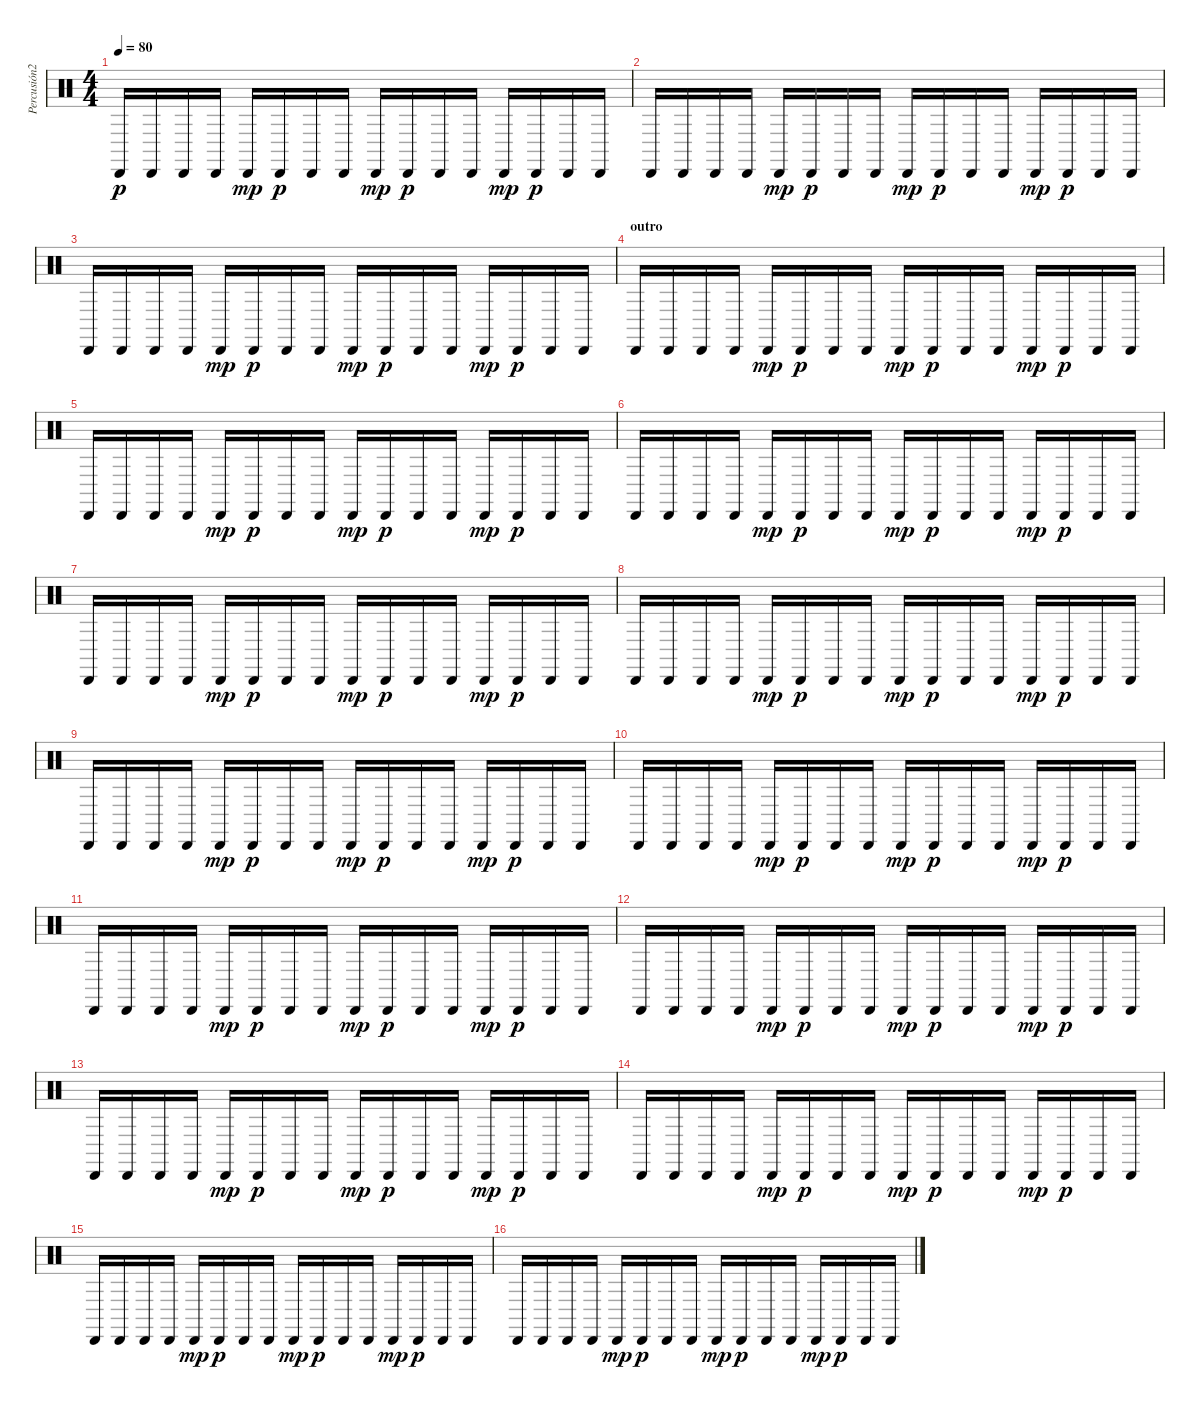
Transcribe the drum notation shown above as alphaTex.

\track ("Percusión2" "Percusión2") {instrument percussion}
\staff {score}
\articulation defaults
\ts (4 4)
\tempo 80
\clef neutral
\ks c "Cabasa (hit)".16{dy p} "Cabasa (hit)".16 "Cabasa (hit)".16 "Cabasa (hit)".16 "Cabasa (hit)".16{dy mp} "Cabasa (hit)".16{dy p} "Cabasa (hit)".16 "Cabasa (hit)".16 "Cabasa (hit)".16{dy mp} "Cabasa (hit)".16{dy p} "Cabasa (hit)".16 "Cabasa (hit)".16 "Cabasa (hit)".16{dy mp} "Cabasa (hit)".16{dy p} "Cabasa (hit)".16 "Cabasa (hit)".16
|
"Cabasa (hit)".16 "Cabasa (hit)".16 "Cabasa (hit)".16 "Cabasa (hit)".16 "Cabasa (hit)".16{dy mp} "Cabasa (hit)".16{dy p} "Cabasa (hit)".16 "Cabasa (hit)".16 "Cabasa (hit)".16{dy mp} "Cabasa (hit)".16{dy p} "Cabasa (hit)".16 "Cabasa (hit)".16 "Cabasa (hit)".16{dy mp} "Cabasa (hit)".16{dy p} "Cabasa (hit)".16 "Cabasa (hit)".16 |
"Cabasa (hit)".16 "Cabasa (hit)".16 "Cabasa (hit)".16 "Cabasa (hit)".16 "Cabasa (hit)".16{dy mp} "Cabasa (hit)".16{dy p} "Cabasa (hit)".16 "Cabasa (hit)".16 "Cabasa (hit)".16{dy mp} "Cabasa (hit)".16{dy p} "Cabasa (hit)".16 "Cabasa (hit)".16 "Cabasa (hit)".16{dy mp} "Cabasa (hit)".16{dy p} "Cabasa (hit)".16 "Cabasa (hit)".16 |
\section ("" "outro")
"Cabasa (hit)".16 "Cabasa (hit)".16 "Cabasa (hit)".16 "Cabasa (hit)".16 "Cabasa (hit)".16{dy mp} "Cabasa (hit)".16{dy p} "Cabasa (hit)".16 "Cabasa (hit)".16 "Cabasa (hit)".16{dy mp} "Cabasa (hit)".16{dy p} "Cabasa (hit)".16 "Cabasa (hit)".16 "Cabasa (hit)".16{dy mp} "Cabasa (hit)".16{dy p} "Cabasa (hit)".16 "Cabasa (hit)".16 |
"Cabasa (hit)".16 "Cabasa (hit)".16 "Cabasa (hit)".16 "Cabasa (hit)".16 "Cabasa (hit)".16{dy mp} "Cabasa (hit)".16{dy p} "Cabasa (hit)".16 "Cabasa (hit)".16 "Cabasa (hit)".16{dy mp} "Cabasa (hit)".16{dy p} "Cabasa (hit)".16 "Cabasa (hit)".16 "Cabasa (hit)".16{dy mp} "Cabasa (hit)".16{dy p} "Cabasa (hit)".16 "Cabasa (hit)".16 |
"Cabasa (hit)".16 "Cabasa (hit)".16 "Cabasa (hit)".16 "Cabasa (hit)".16 "Cabasa (hit)".16{dy mp} "Cabasa (hit)".16{dy p} "Cabasa (hit)".16 "Cabasa (hit)".16 "Cabasa (hit)".16{dy mp} "Cabasa (hit)".16{dy p} "Cabasa (hit)".16 "Cabasa (hit)".16 "Cabasa (hit)".16{dy mp} "Cabasa (hit)".16{dy p} "Cabasa (hit)".16 "Cabasa (hit)".16 |
"Cabasa (hit)".16 "Cabasa (hit)".16 "Cabasa (hit)".16 "Cabasa (hit)".16 "Cabasa (hit)".16{dy mp} "Cabasa (hit)".16{dy p} "Cabasa (hit)".16 "Cabasa (hit)".16 "Cabasa (hit)".16{dy mp} "Cabasa (hit)".16{dy p} "Cabasa (hit)".16 "Cabasa (hit)".16 "Cabasa (hit)".16{dy mp} "Cabasa (hit)".16{dy p} "Cabasa (hit)".16 "Cabasa (hit)".16 |
"Cabasa (hit)".16 "Cabasa (hit)".16 "Cabasa (hit)".16 "Cabasa (hit)".16 "Cabasa (hit)".16{dy mp} "Cabasa (hit)".16{dy p} "Cabasa (hit)".16 "Cabasa (hit)".16 "Cabasa (hit)".16{dy mp} "Cabasa (hit)".16{dy p} "Cabasa (hit)".16 "Cabasa (hit)".16 "Cabasa (hit)".16{dy mp} "Cabasa (hit)".16{dy p} "Cabasa (hit)".16 "Cabasa (hit)".16 |
"Cabasa (hit)".16 "Cabasa (hit)".16 "Cabasa (hit)".16 "Cabasa (hit)".16 "Cabasa (hit)".16{dy mp} "Cabasa (hit)".16{dy p} "Cabasa (hit)".16 "Cabasa (hit)".16 "Cabasa (hit)".16{dy mp} "Cabasa (hit)".16{dy p} "Cabasa (hit)".16 "Cabasa (hit)".16 "Cabasa (hit)".16{dy mp} "Cabasa (hit)".16{dy p} "Cabasa (hit)".16 "Cabasa (hit)".16 |
"Cabasa (hit)".16 "Cabasa (hit)".16 "Cabasa (hit)".16 "Cabasa (hit)".16 "Cabasa (hit)".16{dy mp} "Cabasa (hit)".16{dy p} "Cabasa (hit)".16 "Cabasa (hit)".16 "Cabasa (hit)".16{dy mp} "Cabasa (hit)".16{dy p} "Cabasa (hit)".16 "Cabasa (hit)".16 "Cabasa (hit)".16{dy mp} "Cabasa (hit)".16{dy p} "Cabasa (hit)".16 "Cabasa (hit)".16 |
"Cabasa (hit)".16 "Cabasa (hit)".16 "Cabasa (hit)".16 "Cabasa (hit)".16 "Cabasa (hit)".16{dy mp} "Cabasa (hit)".16{dy p} "Cabasa (hit)".16 "Cabasa (hit)".16 "Cabasa (hit)".16{dy mp} "Cabasa (hit)".16{dy p} "Cabasa (hit)".16 "Cabasa (hit)".16 "Cabasa (hit)".16{dy mp} "Cabasa (hit)".16{dy p} "Cabasa (hit)".16 "Cabasa (hit)".16 |
"Cabasa (hit)".16 "Cabasa (hit)".16 "Cabasa (hit)".16 "Cabasa (hit)".16 "Cabasa (hit)".16{dy mp} "Cabasa (hit)".16{dy p} "Cabasa (hit)".16 "Cabasa (hit)".16 "Cabasa (hit)".16{dy mp} "Cabasa (hit)".16{dy p} "Cabasa (hit)".16 "Cabasa (hit)".16 "Cabasa (hit)".16{dy mp} "Cabasa (hit)".16{dy p} "Cabasa (hit)".16 "Cabasa (hit)".16 |
"Cabasa (hit)".16 "Cabasa (hit)".16 "Cabasa (hit)".16 "Cabasa (hit)".16 "Cabasa (hit)".16{dy mp} "Cabasa (hit)".16{dy p} "Cabasa (hit)".16 "Cabasa (hit)".16 "Cabasa (hit)".16{dy mp} "Cabasa (hit)".16{dy p} "Cabasa (hit)".16 "Cabasa (hit)".16 "Cabasa (hit)".16{dy mp} "Cabasa (hit)".16{dy p} "Cabasa (hit)".16 "Cabasa (hit)".16 |
"Cabasa (hit)".16 "Cabasa (hit)".16 "Cabasa (hit)".16 "Cabasa (hit)".16 "Cabasa (hit)".16{dy mp} "Cabasa (hit)".16{dy p} "Cabasa (hit)".16 "Cabasa (hit)".16 "Cabasa (hit)".16{dy mp} "Cabasa (hit)".16{dy p} "Cabasa (hit)".16 "Cabasa (hit)".16 "Cabasa (hit)".16{dy mp} "Cabasa (hit)".16{dy p} "Cabasa (hit)".16 "Cabasa (hit)".16 |
"Cabasa (hit)".16 "Cabasa (hit)".16 "Cabasa (hit)".16 "Cabasa (hit)".16 "Cabasa (hit)".16{dy mp} "Cabasa (hit)".16{dy p} "Cabasa (hit)".16 "Cabasa (hit)".16 "Cabasa (hit)".16{dy mp} "Cabasa (hit)".16{dy p} "Cabasa (hit)".16 "Cabasa (hit)".16 "Cabasa (hit)".16{dy mp} "Cabasa (hit)".16{dy p} "Cabasa (hit)".16 "Cabasa (hit)".16 |
"Cabasa (hit)".16 "Cabasa (hit)".16 "Cabasa (hit)".16 "Cabasa (hit)".16 "Cabasa (hit)".16{dy mp} "Cabasa (hit)".16{dy p} "Cabasa (hit)".16 "Cabasa (hit)".16 "Cabasa (hit)".16{dy mp} "Cabasa (hit)".16{dy p} "Cabasa (hit)".16 "Cabasa (hit)".16 "Cabasa (hit)".16{dy mp} "Cabasa (hit)".16{dy p} "Cabasa (hit)".16 "Cabasa (hit)".16
